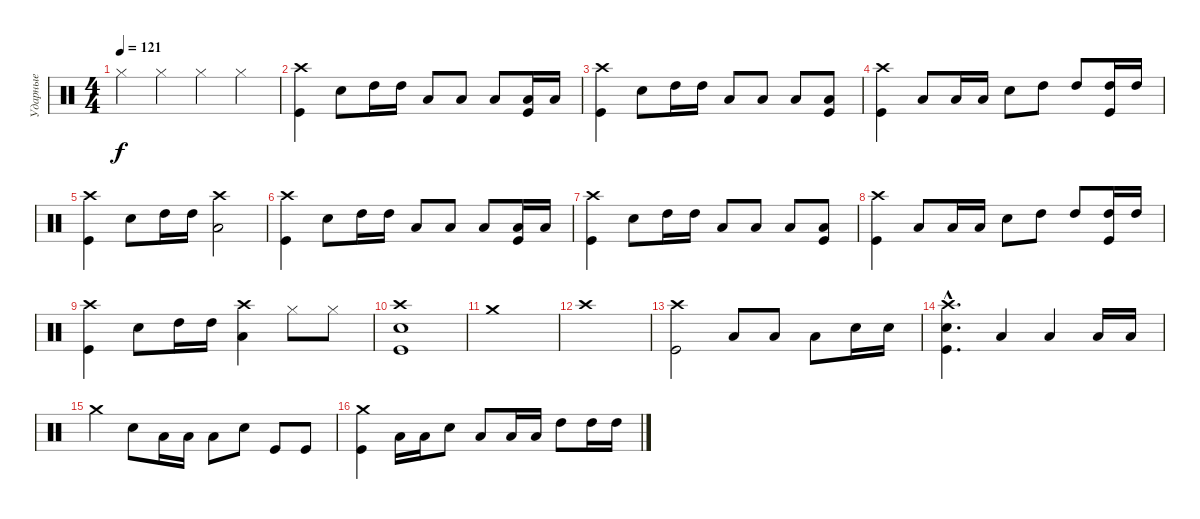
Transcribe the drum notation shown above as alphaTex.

\track ("Ударные" "Ударные") {instrument percussion}
\staff {score}
\articulation defaults
\ts (4 4)
\tempo 121
\clef neutral
\ks c "Hi-Hat (closed)".4{dy f} "Hi-Hat (closed)".4 "Hi-Hat (closed)".4 "Hi-Hat (closed)".4
|
("Crash high (hit)" "Kick (hit)").4 "Electric Snare (hit)".8 "High Tom (hit)".16 "High Tom (hit)".16 "Low Tom (hit)".8 "Low Tom (hit)".8 "Low Tom (hit)".8 ("Low Tom (hit)" "Kick (hit)").16 "Low Tom (hit)".16 |
("Crash high (hit)" "Kick (hit)").4 "Electric Snare (hit)".8 "High Tom (hit)".16 "High Tom (hit)".16 "Low Tom (hit)".8 "Low Tom (hit)".8 "Low Tom (hit)".8 ("Low Tom (hit)" "Kick (hit)").8 |
("Crash high (hit)" "Kick (hit)").4 "Low Tom (hit)".8 "Low Tom (hit)".16 "Low Tom (hit)".16 "Electric Snare (hit)".8 "High Tom (hit)".8 "High Tom (hit)".8 ("High Tom (hit)" "Kick (hit)").16 "High Tom (hit)".16 |
("Crash high (hit)" "Kick (hit)").4 "Electric Snare (hit)".8 "High Tom (hit)".16 "High Tom (hit)".16 ("Crash high (hit)" "Low Tom (hit)").2 |
("Crash high (hit)" "Kick (hit)").4 "Electric Snare (hit)".8 "High Tom (hit)".16 "High Tom (hit)".16 "Low Tom (hit)".8 "Low Tom (hit)".8 "Low Tom (hit)".8 ("Low Tom (hit)" "Kick (hit)").16 "Low Tom (hit)".16 |
("Crash high (hit)" "Kick (hit)").4 "Electric Snare (hit)".8 "High Tom (hit)".16 "High Tom (hit)".16 "Low Tom (hit)".8 "Low Tom (hit)".8 "Low Tom (hit)".8 ("Low Tom (hit)" "Kick (hit)").8 |
("Crash high (hit)" "Kick (hit)").4 "Low Tom (hit)".8 "Low Tom (hit)".16 "Low Tom (hit)".16 "Electric Snare (hit)".8 "High Tom (hit)".8 "High Tom (hit)".8 ("High Tom (hit)" "Kick (hit)").16 "High Tom (hit)".16 |
("Crash high (hit)" "Kick (hit)").4 "Electric Snare (hit)".8 "High Tom (hit)".16 "High Tom (hit)".16 ("Crash high (hit)" "Low Tom (hit)").4 "Hi-Hat (closed)".8 "Hi-Hat (closed)".8 |
("Crash high (hit)" "Electric Snare (hit)" "Kick (hit)").1 |
"Crash medium (hit)".1 |
"Crash high (hit)".1 |
("Crash high (hit)" "Kick (hit)").2 "Low Tom (hit)".8 "Low Tom (hit)".8 "Low Tom (hit)".8 "Electric Snare (hit)".16 "Electric Snare (hit)".16 |
("Crash high (hit)"{hac} "Electric Snare (hit)"{hac} "Kick (hit)"{hac}).4{d} "Low Tom (hit)".4 "Low Tom (hit)".4 "Low Tom (hit)".16 "Low Tom (hit)".16 |
"Crash medium (hit)".4 "Electric Snare (hit)".8 "Low Tom (hit)".16 "Low Tom (hit)".16 "Low Tom (hit)".8 "Electric Snare (hit)".8 "Kick (hit)".8 "Kick (hit)".8 |
("Crash medium (hit)" "Kick (hit)").4 "Low Tom (hit)".16 "Low Tom (hit)".16 "Electric Snare (hit)".8 "Low Tom (hit)".8 "Low Tom (hit)".16 "Low Tom (hit)".16 "High Tom (hit)".8 "High Tom (hit)".16 "High Tom (hit)".16
